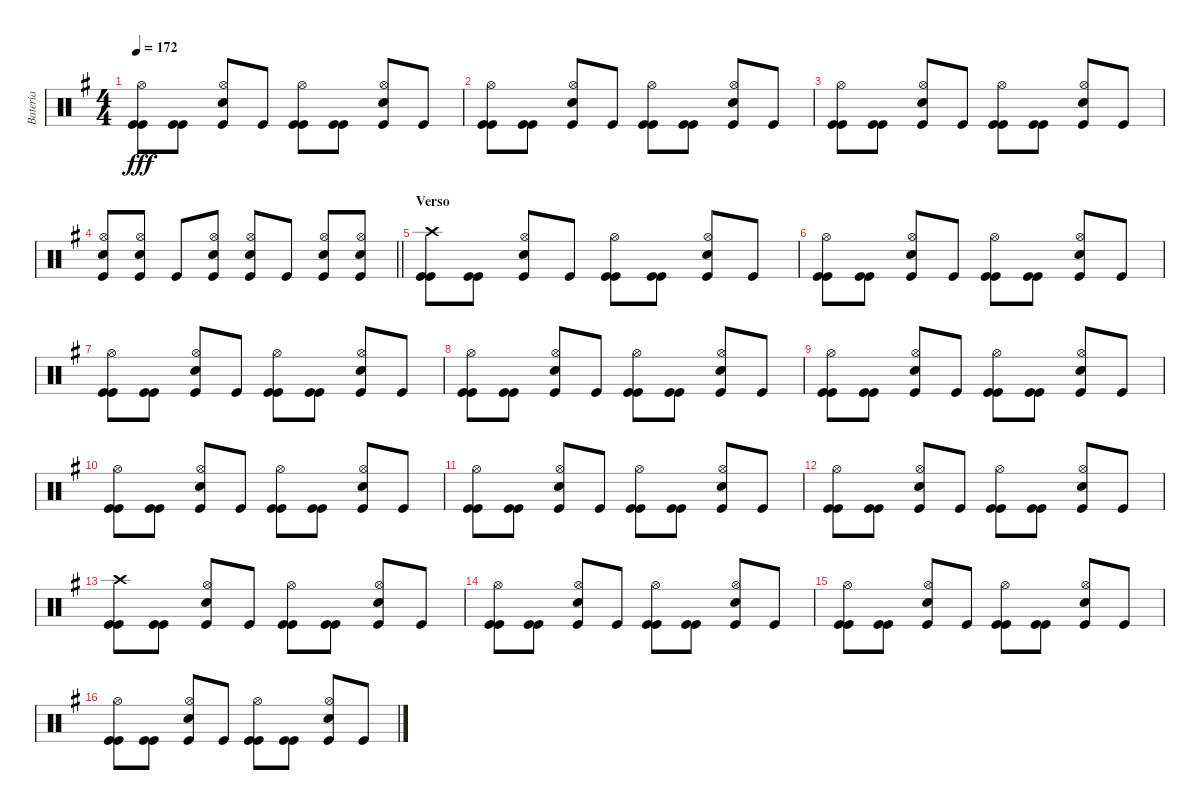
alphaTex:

\track ("Batería" "Batería") {instrument percussion}
\staff {score}
\articulation defaults
\ts (4 4)
\tempo 172
\clef neutral
\ks eminor
("Kick (hit)" "Kick (hit)" "Hi-Hat (open)").8{dy fff} ("Kick (hit)" "Kick (hit)").8 ("Kick (hit)" "Electric Snare (hit)" "Hi-Hat (open)").8 "Kick (hit)".8 ("Kick (hit)" "Kick (hit)" "Hi-Hat (open)").8 ("Kick (hit)" "Kick (hit)").8 ("Kick (hit)" "Electric Snare (hit)" "Hi-Hat (open)").8 "Kick (hit)".8 |
("Kick (hit)" "Kick (hit)" "Hi-Hat (open)").8 ("Kick (hit)" "Kick (hit)").8 ("Kick (hit)" "Electric Snare (hit)" "Hi-Hat (open)").8 "Kick (hit)".8 ("Kick (hit)" "Kick (hit)" "Hi-Hat (open)").8 ("Kick (hit)" "Kick (hit)").8 ("Kick (hit)" "Electric Snare (hit)" "Hi-Hat (open)").8 "Kick (hit)".8 |
("Kick (hit)" "Kick (hit)" "Hi-Hat (open)").8 ("Kick (hit)" "Kick (hit)").8 ("Kick (hit)" "Electric Snare (hit)" "Hi-Hat (open)").8 "Kick (hit)".8 ("Kick (hit)" "Kick (hit)" "Hi-Hat (open)").8 ("Kick (hit)" "Kick (hit)").8 ("Kick (hit)" "Electric Snare (hit)" "Hi-Hat (open)").8 "Kick (hit)".8 |
\barLineRight lightlight
("Kick (hit)" "Electric Snare (hit)" "Hi-Hat (open)").8 ("Kick (hit)" "Electric Snare (hit)" "Hi-Hat (open)").8 "Kick (hit)".8 ("Kick (hit)" "Electric Snare (hit)" "Hi-Hat (open)").8 ("Kick (hit)" "Electric Snare (hit)" "Hi-Hat (open)").8 "Kick (hit)".8 ("Kick (hit)" "Electric Snare (hit)" "Hi-Hat (open)").8 ("Kick (hit)" "Electric Snare (hit)" "Hi-Hat (open)").8 |
\section ("" "Verso")
("Kick (hit)" "Kick (hit)" "Crash high (hit)").8 ("Kick (hit)" "Kick (hit)").8 ("Kick (hit)" "Electric Snare (hit)" "Hi-Hat (open)").8 "Kick (hit)".8 ("Kick (hit)" "Kick (hit)" "Hi-Hat (open)").8 ("Kick (hit)" "Kick (hit)").8 ("Kick (hit)" "Electric Snare (hit)" "Hi-Hat (open)").8 "Kick (hit)".8 |
("Kick (hit)" "Kick (hit)" "Hi-Hat (open)").8 ("Kick (hit)" "Kick (hit)").8 ("Kick (hit)" "Electric Snare (hit)" "Hi-Hat (open)").8 "Kick (hit)".8 ("Kick (hit)" "Kick (hit)" "Hi-Hat (open)").8 ("Kick (hit)" "Kick (hit)").8 ("Kick (hit)" "Electric Snare (hit)" "Hi-Hat (open)").8 "Kick (hit)".8 |
("Kick (hit)" "Kick (hit)" "Hi-Hat (open)").8 ("Kick (hit)" "Kick (hit)").8 ("Kick (hit)" "Electric Snare (hit)" "Hi-Hat (open)").8 "Kick (hit)".8 ("Kick (hit)" "Kick (hit)" "Hi-Hat (open)").8 ("Kick (hit)" "Kick (hit)").8 ("Kick (hit)" "Electric Snare (hit)" "Hi-Hat (open)").8 "Kick (hit)".8 |
("Kick (hit)" "Kick (hit)" "Hi-Hat (open)").8 ("Kick (hit)" "Kick (hit)").8 ("Kick (hit)" "Electric Snare (hit)" "Hi-Hat (open)").8 "Kick (hit)".8 ("Kick (hit)" "Kick (hit)" "Hi-Hat (open)").8 ("Kick (hit)" "Kick (hit)").8 ("Kick (hit)" "Electric Snare (hit)" "Hi-Hat (open)").8 "Kick (hit)".8 |
("Kick (hit)" "Kick (hit)" "Hi-Hat (open)").8 ("Kick (hit)" "Kick (hit)").8 ("Kick (hit)" "Electric Snare (hit)" "Hi-Hat (open)").8 "Kick (hit)".8 ("Kick (hit)" "Kick (hit)" "Hi-Hat (open)").8 ("Kick (hit)" "Kick (hit)").8 ("Kick (hit)" "Electric Snare (hit)" "Hi-Hat (open)").8 "Kick (hit)".8 |
("Kick (hit)" "Kick (hit)" "Hi-Hat (open)").8 ("Kick (hit)" "Kick (hit)").8 ("Kick (hit)" "Electric Snare (hit)" "Hi-Hat (open)").8 "Kick (hit)".8 ("Kick (hit)" "Kick (hit)" "Hi-Hat (open)").8 ("Kick (hit)" "Kick (hit)").8 ("Kick (hit)" "Electric Snare (hit)" "Hi-Hat (open)").8 "Kick (hit)".8 |
("Kick (hit)" "Kick (hit)" "Hi-Hat (open)").8 ("Kick (hit)" "Kick (hit)").8 ("Kick (hit)" "Electric Snare (hit)" "Hi-Hat (open)").8 "Kick (hit)".8 ("Kick (hit)" "Kick (hit)" "Hi-Hat (open)").8 ("Kick (hit)" "Kick (hit)").8 ("Kick (hit)" "Electric Snare (hit)" "Hi-Hat (open)").8 "Kick (hit)".8 |
("Kick (hit)" "Kick (hit)" "Hi-Hat (open)").8 ("Kick (hit)" "Kick (hit)").8 ("Kick (hit)" "Electric Snare (hit)" "Hi-Hat (open)").8 "Kick (hit)".8 ("Kick (hit)" "Kick (hit)" "Hi-Hat (open)").8 ("Kick (hit)" "Kick (hit)").8 ("Kick (hit)" "Electric Snare (hit)" "Hi-Hat (open)").8 "Kick (hit)".8 |
("Kick (hit)" "Kick (hit)" "Crash high (hit)").8 ("Kick (hit)" "Kick (hit)").8 ("Kick (hit)" "Electric Snare (hit)" "Hi-Hat (open)").8 "Kick (hit)".8 ("Kick (hit)" "Kick (hit)" "Hi-Hat (open)").8 ("Kick (hit)" "Kick (hit)").8 ("Kick (hit)" "Electric Snare (hit)" "Hi-Hat (open)").8 "Kick (hit)".8 |
("Kick (hit)" "Kick (hit)" "Hi-Hat (open)").8 ("Kick (hit)" "Kick (hit)").8 ("Kick (hit)" "Electric Snare (hit)" "Hi-Hat (open)").8 "Kick (hit)".8 ("Kick (hit)" "Kick (hit)" "Hi-Hat (open)").8 ("Kick (hit)" "Kick (hit)").8 ("Kick (hit)" "Electric Snare (hit)" "Hi-Hat (open)").8 "Kick (hit)".8 |
("Kick (hit)" "Kick (hit)" "Hi-Hat (open)").8 ("Kick (hit)" "Kick (hit)").8 ("Kick (hit)" "Electric Snare (hit)" "Hi-Hat (open)").8 "Kick (hit)".8 ("Kick (hit)" "Kick (hit)" "Hi-Hat (open)").8 ("Kick (hit)" "Kick (hit)").8 ("Kick (hit)" "Electric Snare (hit)" "Hi-Hat (open)").8 "Kick (hit)".8 |
("Kick (hit)" "Kick (hit)" "Hi-Hat (open)").8 ("Kick (hit)" "Kick (hit)").8 ("Kick (hit)" "Electric Snare (hit)" "Hi-Hat (open)").8 "Kick (hit)".8 ("Kick (hit)" "Kick (hit)" "Hi-Hat (open)").8 ("Kick (hit)" "Kick (hit)").8 ("Kick (hit)" "Electric Snare (hit)" "Hi-Hat (open)").8 "Kick (hit)".8
